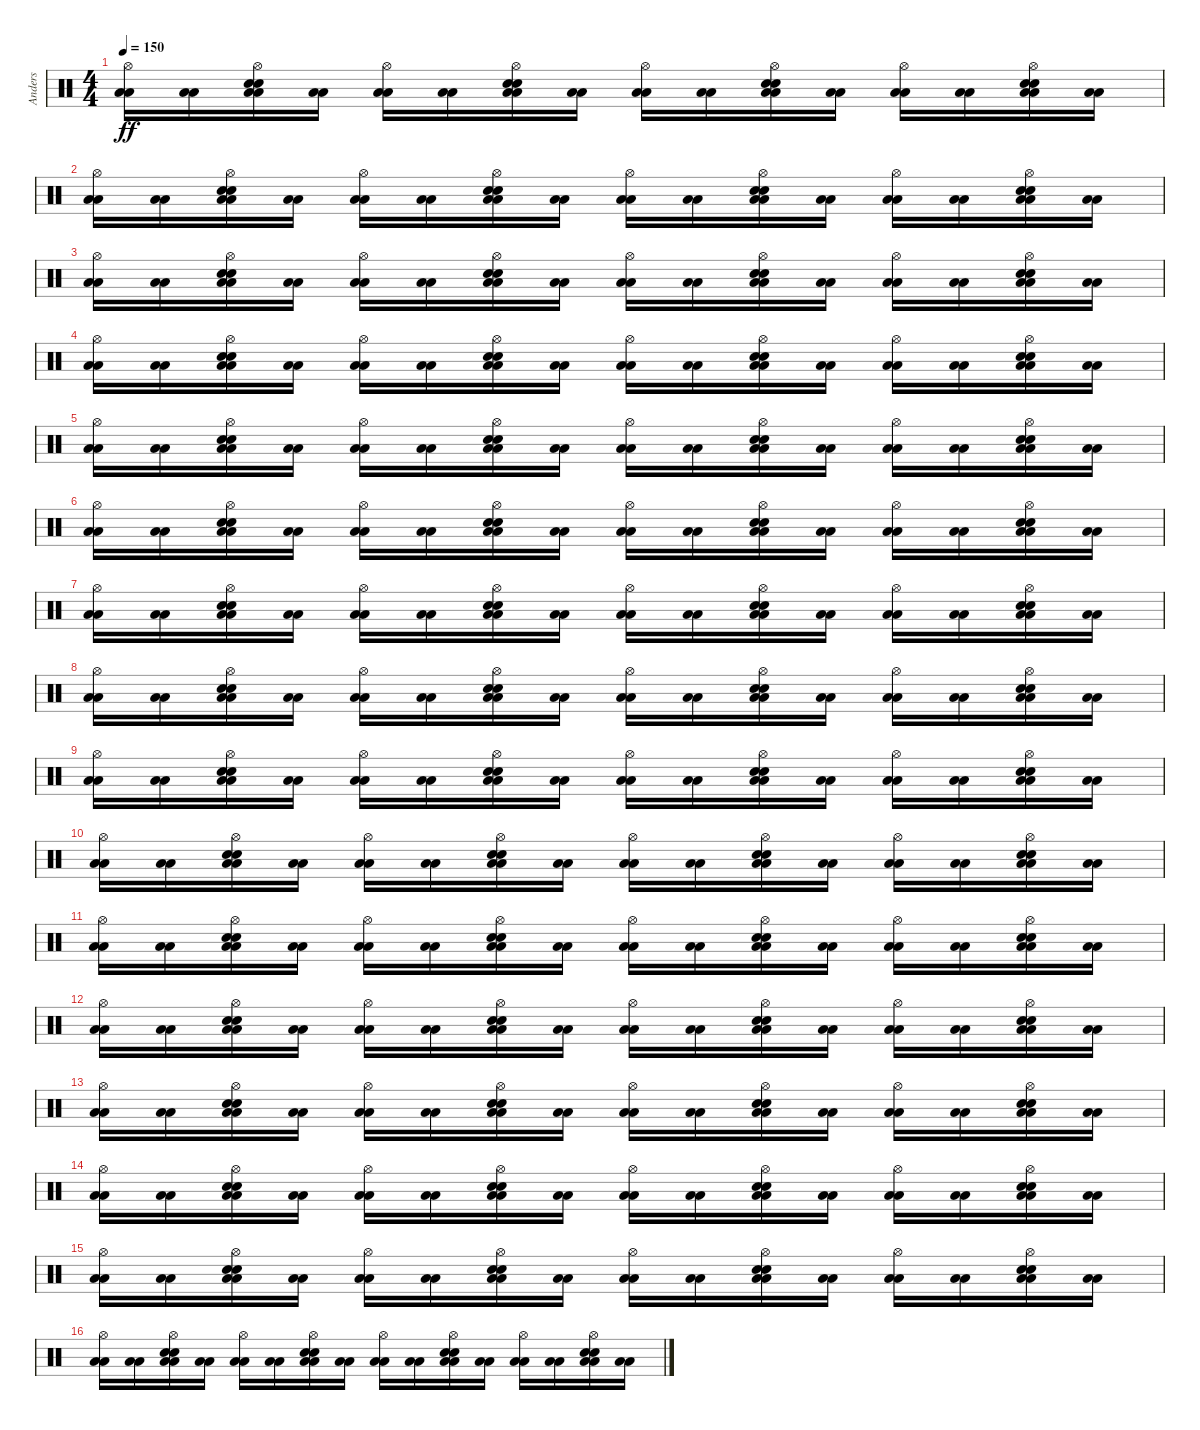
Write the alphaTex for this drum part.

\track ("Anders" "Anders") {instrument percussion}
\staff {score}
\articulation defaults
\ts (4 4)
\tempo 150
\clef neutral
\ks c
("Hi-Hat (open)" "Low Floor Tom (hit)" "Low Floor Tom (hit)").16{dy ff} ("Low Floor Tom (hit)" "Low Floor Tom (hit)").16 ("Hi-Hat (open)" "Electric Snare (hit)" "Electric Snare (hit)" "Low Floor Tom (hit)" "Low Floor Tom (hit)").16 ("Low Floor Tom (hit)" "Low Floor Tom (hit)").16 ("Hi-Hat (open)" "Low Floor Tom (hit)" "Low Floor Tom (hit)").16 ("Low Floor Tom (hit)" "Low Floor Tom (hit)").16 ("Hi-Hat (open)" "Electric Snare (hit)" "Electric Snare (hit)" "Low Floor Tom (hit)" "Low Floor Tom (hit)").16 ("Low Floor Tom (hit)" "Low Floor Tom (hit)").16 ("Hi-Hat (open)" "Low Floor Tom (hit)" "Low Floor Tom (hit)").16 ("Low Floor Tom (hit)" "Low Floor Tom (hit)").16 ("Hi-Hat (open)" "Electric Snare (hit)" "Electric Snare (hit)" "Low Floor Tom (hit)" "Low Floor Tom (hit)").16 ("Low Floor Tom (hit)" "Low Floor Tom (hit)").16 ("Hi-Hat (open)" "Low Floor Tom (hit)" "Low Floor Tom (hit)").16 ("Low Floor Tom (hit)" "Low Floor Tom (hit)").16 ("Hi-Hat (open)" "Electric Snare (hit)" "Electric Snare (hit)" "Low Floor Tom (hit)" "Low Floor Tom (hit)").16 ("Low Floor Tom (hit)" "Low Floor Tom (hit)").16 |
("Hi-Hat (open)" "Low Floor Tom (hit)" "Low Floor Tom (hit)").16 ("Low Floor Tom (hit)" "Low Floor Tom (hit)").16 ("Hi-Hat (open)" "Electric Snare (hit)" "Electric Snare (hit)" "Low Floor Tom (hit)" "Low Floor Tom (hit)").16 ("Low Floor Tom (hit)" "Low Floor Tom (hit)").16 ("Hi-Hat (open)" "Low Floor Tom (hit)" "Low Floor Tom (hit)").16 ("Low Floor Tom (hit)" "Low Floor Tom (hit)").16 ("Hi-Hat (open)" "Electric Snare (hit)" "Electric Snare (hit)" "Low Floor Tom (hit)" "Low Floor Tom (hit)").16 ("Low Floor Tom (hit)" "Low Floor Tom (hit)").16 ("Hi-Hat (open)" "Low Floor Tom (hit)" "Low Floor Tom (hit)").16 ("Low Floor Tom (hit)" "Low Floor Tom (hit)").16 ("Hi-Hat (open)" "Electric Snare (hit)" "Electric Snare (hit)" "Low Floor Tom (hit)" "Low Floor Tom (hit)").16 ("Low Floor Tom (hit)" "Low Floor Tom (hit)").16 ("Hi-Hat (open)" "Low Floor Tom (hit)" "Low Floor Tom (hit)").16 ("Low Floor Tom (hit)" "Low Floor Tom (hit)").16 ("Hi-Hat (open)" "Electric Snare (hit)" "Electric Snare (hit)" "Low Floor Tom (hit)" "Low Floor Tom (hit)").16 ("Low Floor Tom (hit)" "Low Floor Tom (hit)").16 |
("Hi-Hat (open)" "Low Floor Tom (hit)" "Low Floor Tom (hit)").16 ("Low Floor Tom (hit)" "Low Floor Tom (hit)").16 ("Hi-Hat (open)" "Electric Snare (hit)" "Electric Snare (hit)" "Low Floor Tom (hit)" "Low Floor Tom (hit)").16 ("Low Floor Tom (hit)" "Low Floor Tom (hit)").16 ("Hi-Hat (open)" "Low Floor Tom (hit)" "Low Floor Tom (hit)").16 ("Low Floor Tom (hit)" "Low Floor Tom (hit)").16 ("Hi-Hat (open)" "Electric Snare (hit)" "Electric Snare (hit)" "Low Floor Tom (hit)" "Low Floor Tom (hit)").16 ("Low Floor Tom (hit)" "Low Floor Tom (hit)").16 ("Hi-Hat (open)" "Low Floor Tom (hit)" "Low Floor Tom (hit)").16 ("Low Floor Tom (hit)" "Low Floor Tom (hit)").16 ("Hi-Hat (open)" "Electric Snare (hit)" "Electric Snare (hit)" "Low Floor Tom (hit)" "Low Floor Tom (hit)").16 ("Low Floor Tom (hit)" "Low Floor Tom (hit)").16 ("Hi-Hat (open)" "Low Floor Tom (hit)" "Low Floor Tom (hit)").16 ("Low Floor Tom (hit)" "Low Floor Tom (hit)").16 ("Hi-Hat (open)" "Electric Snare (hit)" "Electric Snare (hit)" "Low Floor Tom (hit)" "Low Floor Tom (hit)").16 ("Low Floor Tom (hit)" "Low Floor Tom (hit)").16 |
("Hi-Hat (open)" "Low Floor Tom (hit)" "Low Floor Tom (hit)").16 ("Low Floor Tom (hit)" "Low Floor Tom (hit)").16 ("Hi-Hat (open)" "Electric Snare (hit)" "Electric Snare (hit)" "Low Floor Tom (hit)" "Low Floor Tom (hit)").16 ("Low Floor Tom (hit)" "Low Floor Tom (hit)").16 ("Hi-Hat (open)" "Low Floor Tom (hit)" "Low Floor Tom (hit)").16 ("Low Floor Tom (hit)" "Low Floor Tom (hit)").16 ("Hi-Hat (open)" "Electric Snare (hit)" "Electric Snare (hit)" "Low Floor Tom (hit)" "Low Floor Tom (hit)").16 ("Low Floor Tom (hit)" "Low Floor Tom (hit)").16 ("Hi-Hat (open)" "Low Floor Tom (hit)" "Low Floor Tom (hit)").16 ("Low Floor Tom (hit)" "Low Floor Tom (hit)").16 ("Hi-Hat (open)" "Electric Snare (hit)" "Electric Snare (hit)" "Low Floor Tom (hit)" "Low Floor Tom (hit)").16 ("Low Floor Tom (hit)" "Low Floor Tom (hit)").16 ("Hi-Hat (open)" "Low Floor Tom (hit)" "Low Floor Tom (hit)").16 ("Low Floor Tom (hit)" "Low Floor Tom (hit)").16 ("Hi-Hat (open)" "Electric Snare (hit)" "Electric Snare (hit)" "Low Floor Tom (hit)" "Low Floor Tom (hit)").16 ("Low Floor Tom (hit)" "Low Floor Tom (hit)").16 |
("Hi-Hat (open)" "Low Floor Tom (hit)" "Low Floor Tom (hit)").16 ("Low Floor Tom (hit)" "Low Floor Tom (hit)").16 ("Hi-Hat (open)" "Electric Snare (hit)" "Electric Snare (hit)" "Low Floor Tom (hit)" "Low Floor Tom (hit)").16 ("Low Floor Tom (hit)" "Low Floor Tom (hit)").16 ("Hi-Hat (open)" "Low Floor Tom (hit)" "Low Floor Tom (hit)").16 ("Low Floor Tom (hit)" "Low Floor Tom (hit)").16 ("Hi-Hat (open)" "Electric Snare (hit)" "Electric Snare (hit)" "Low Floor Tom (hit)" "Low Floor Tom (hit)").16 ("Low Floor Tom (hit)" "Low Floor Tom (hit)").16 ("Hi-Hat (open)" "Low Floor Tom (hit)" "Low Floor Tom (hit)").16 ("Low Floor Tom (hit)" "Low Floor Tom (hit)").16 ("Hi-Hat (open)" "Electric Snare (hit)" "Electric Snare (hit)" "Low Floor Tom (hit)" "Low Floor Tom (hit)").16 ("Low Floor Tom (hit)" "Low Floor Tom (hit)").16 ("Hi-Hat (open)" "Low Floor Tom (hit)" "Low Floor Tom (hit)").16 ("Low Floor Tom (hit)" "Low Floor Tom (hit)").16 ("Hi-Hat (open)" "Electric Snare (hit)" "Electric Snare (hit)" "Low Floor Tom (hit)" "Low Floor Tom (hit)").16 ("Low Floor Tom (hit)" "Low Floor Tom (hit)").16 |
("Hi-Hat (open)" "Low Floor Tom (hit)" "Low Floor Tom (hit)").16 ("Low Floor Tom (hit)" "Low Floor Tom (hit)").16 ("Hi-Hat (open)" "Electric Snare (hit)" "Electric Snare (hit)" "Low Floor Tom (hit)" "Low Floor Tom (hit)").16 ("Low Floor Tom (hit)" "Low Floor Tom (hit)").16 ("Hi-Hat (open)" "Low Floor Tom (hit)" "Low Floor Tom (hit)").16 ("Low Floor Tom (hit)" "Low Floor Tom (hit)").16 ("Hi-Hat (open)" "Electric Snare (hit)" "Electric Snare (hit)" "Low Floor Tom (hit)" "Low Floor Tom (hit)").16 ("Low Floor Tom (hit)" "Low Floor Tom (hit)").16 ("Hi-Hat (open)" "Low Floor Tom (hit)" "Low Floor Tom (hit)").16 ("Low Floor Tom (hit)" "Low Floor Tom (hit)").16 ("Hi-Hat (open)" "Electric Snare (hit)" "Electric Snare (hit)" "Low Floor Tom (hit)" "Low Floor Tom (hit)").16 ("Low Floor Tom (hit)" "Low Floor Tom (hit)").16 ("Hi-Hat (open)" "Low Floor Tom (hit)" "Low Floor Tom (hit)").16 ("Low Floor Tom (hit)" "Low Floor Tom (hit)").16 ("Hi-Hat (open)" "Electric Snare (hit)" "Electric Snare (hit)" "Low Floor Tom (hit)" "Low Floor Tom (hit)").16 ("Low Floor Tom (hit)" "Low Floor Tom (hit)").16 |
("Hi-Hat (open)" "Low Floor Tom (hit)" "Low Floor Tom (hit)").16 ("Low Floor Tom (hit)" "Low Floor Tom (hit)").16 ("Hi-Hat (open)" "Electric Snare (hit)" "Electric Snare (hit)" "Low Floor Tom (hit)" "Low Floor Tom (hit)").16 ("Low Floor Tom (hit)" "Low Floor Tom (hit)").16 ("Hi-Hat (open)" "Low Floor Tom (hit)" "Low Floor Tom (hit)").16 ("Low Floor Tom (hit)" "Low Floor Tom (hit)").16 ("Hi-Hat (open)" "Electric Snare (hit)" "Electric Snare (hit)" "Low Floor Tom (hit)" "Low Floor Tom (hit)").16 ("Low Floor Tom (hit)" "Low Floor Tom (hit)").16 ("Hi-Hat (open)" "Low Floor Tom (hit)" "Low Floor Tom (hit)").16 ("Low Floor Tom (hit)" "Low Floor Tom (hit)").16 ("Hi-Hat (open)" "Electric Snare (hit)" "Electric Snare (hit)" "Low Floor Tom (hit)" "Low Floor Tom (hit)").16 ("Low Floor Tom (hit)" "Low Floor Tom (hit)").16 ("Hi-Hat (open)" "Low Floor Tom (hit)" "Low Floor Tom (hit)").16 ("Low Floor Tom (hit)" "Low Floor Tom (hit)").16 ("Hi-Hat (open)" "Electric Snare (hit)" "Electric Snare (hit)" "Low Floor Tom (hit)" "Low Floor Tom (hit)").16 ("Low Floor Tom (hit)" "Low Floor Tom (hit)").16 |
("Hi-Hat (open)" "Low Floor Tom (hit)" "Low Floor Tom (hit)").16 ("Low Floor Tom (hit)" "Low Floor Tom (hit)").16 ("Hi-Hat (open)" "Electric Snare (hit)" "Electric Snare (hit)" "Low Floor Tom (hit)" "Low Floor Tom (hit)").16 ("Low Floor Tom (hit)" "Low Floor Tom (hit)").16 ("Hi-Hat (open)" "Low Floor Tom (hit)" "Low Floor Tom (hit)").16 ("Low Floor Tom (hit)" "Low Floor Tom (hit)").16 ("Hi-Hat (open)" "Electric Snare (hit)" "Electric Snare (hit)" "Low Floor Tom (hit)" "Low Floor Tom (hit)").16 ("Low Floor Tom (hit)" "Low Floor Tom (hit)").16 ("Hi-Hat (open)" "Low Floor Tom (hit)" "Low Floor Tom (hit)").16 ("Low Floor Tom (hit)" "Low Floor Tom (hit)").16 ("Hi-Hat (open)" "Electric Snare (hit)" "Electric Snare (hit)" "Low Floor Tom (hit)" "Low Floor Tom (hit)").16 ("Low Floor Tom (hit)" "Low Floor Tom (hit)").16 ("Hi-Hat (open)" "Low Floor Tom (hit)" "Low Floor Tom (hit)").16 ("Low Floor Tom (hit)" "Low Floor Tom (hit)").16 ("Hi-Hat (open)" "Electric Snare (hit)" "Electric Snare (hit)" "Low Floor Tom (hit)" "Low Floor Tom (hit)").16 ("Low Floor Tom (hit)" "Low Floor Tom (hit)").16 |
("Hi-Hat (open)" "Low Floor Tom (hit)" "Low Floor Tom (hit)").16 ("Low Floor Tom (hit)" "Low Floor Tom (hit)").16 ("Hi-Hat (open)" "Electric Snare (hit)" "Electric Snare (hit)" "Low Floor Tom (hit)" "Low Floor Tom (hit)").16 ("Low Floor Tom (hit)" "Low Floor Tom (hit)").16 ("Hi-Hat (open)" "Low Floor Tom (hit)" "Low Floor Tom (hit)").16 ("Low Floor Tom (hit)" "Low Floor Tom (hit)").16 ("Hi-Hat (open)" "Electric Snare (hit)" "Electric Snare (hit)" "Low Floor Tom (hit)" "Low Floor Tom (hit)").16 ("Low Floor Tom (hit)" "Low Floor Tom (hit)").16 ("Hi-Hat (open)" "Low Floor Tom (hit)" "Low Floor Tom (hit)").16 ("Low Floor Tom (hit)" "Low Floor Tom (hit)").16 ("Hi-Hat (open)" "Electric Snare (hit)" "Electric Snare (hit)" "Low Floor Tom (hit)" "Low Floor Tom (hit)").16 ("Low Floor Tom (hit)" "Low Floor Tom (hit)").16 ("Hi-Hat (open)" "Low Floor Tom (hit)" "Low Floor Tom (hit)").16 ("Low Floor Tom (hit)" "Low Floor Tom (hit)").16 ("Hi-Hat (open)" "Electric Snare (hit)" "Electric Snare (hit)" "Low Floor Tom (hit)" "Low Floor Tom (hit)").16 ("Low Floor Tom (hit)" "Low Floor Tom (hit)").16 |
("Hi-Hat (open)" "Low Floor Tom (hit)" "Low Floor Tom (hit)").16 ("Low Floor Tom (hit)" "Low Floor Tom (hit)").16 ("Hi-Hat (open)" "Electric Snare (hit)" "Electric Snare (hit)" "Low Floor Tom (hit)" "Low Floor Tom (hit)").16 ("Low Floor Tom (hit)" "Low Floor Tom (hit)").16 ("Hi-Hat (open)" "Low Floor Tom (hit)" "Low Floor Tom (hit)").16 ("Low Floor Tom (hit)" "Low Floor Tom (hit)").16 ("Hi-Hat (open)" "Electric Snare (hit)" "Electric Snare (hit)" "Low Floor Tom (hit)" "Low Floor Tom (hit)").16 ("Low Floor Tom (hit)" "Low Floor Tom (hit)").16 ("Hi-Hat (open)" "Low Floor Tom (hit)" "Low Floor Tom (hit)").16 ("Low Floor Tom (hit)" "Low Floor Tom (hit)").16 ("Hi-Hat (open)" "Electric Snare (hit)" "Electric Snare (hit)" "Low Floor Tom (hit)" "Low Floor Tom (hit)").16 ("Low Floor Tom (hit)" "Low Floor Tom (hit)").16 ("Hi-Hat (open)" "Low Floor Tom (hit)" "Low Floor Tom (hit)").16 ("Low Floor Tom (hit)" "Low Floor Tom (hit)").16 ("Hi-Hat (open)" "Electric Snare (hit)" "Electric Snare (hit)" "Low Floor Tom (hit)" "Low Floor Tom (hit)").16 ("Low Floor Tom (hit)" "Low Floor Tom (hit)").16 |
("Hi-Hat (open)" "Low Floor Tom (hit)" "Low Floor Tom (hit)").16 ("Low Floor Tom (hit)" "Low Floor Tom (hit)").16 ("Hi-Hat (open)" "Electric Snare (hit)" "Electric Snare (hit)" "Low Floor Tom (hit)" "Low Floor Tom (hit)").16 ("Low Floor Tom (hit)" "Low Floor Tom (hit)").16 ("Hi-Hat (open)" "Low Floor Tom (hit)" "Low Floor Tom (hit)").16 ("Low Floor Tom (hit)" "Low Floor Tom (hit)").16 ("Hi-Hat (open)" "Electric Snare (hit)" "Electric Snare (hit)" "Low Floor Tom (hit)" "Low Floor Tom (hit)").16 ("Low Floor Tom (hit)" "Low Floor Tom (hit)").16 ("Hi-Hat (open)" "Low Floor Tom (hit)" "Low Floor Tom (hit)").16 ("Low Floor Tom (hit)" "Low Floor Tom (hit)").16 ("Hi-Hat (open)" "Electric Snare (hit)" "Electric Snare (hit)" "Low Floor Tom (hit)" "Low Floor Tom (hit)").16 ("Low Floor Tom (hit)" "Low Floor Tom (hit)").16 ("Hi-Hat (open)" "Low Floor Tom (hit)" "Low Floor Tom (hit)").16 ("Low Floor Tom (hit)" "Low Floor Tom (hit)").16 ("Hi-Hat (open)" "Electric Snare (hit)" "Electric Snare (hit)" "Low Floor Tom (hit)" "Low Floor Tom (hit)").16 ("Low Floor Tom (hit)" "Low Floor Tom (hit)").16 |
("Hi-Hat (open)" "Low Floor Tom (hit)" "Low Floor Tom (hit)").16 ("Low Floor Tom (hit)" "Low Floor Tom (hit)").16 ("Hi-Hat (open)" "Electric Snare (hit)" "Electric Snare (hit)" "Low Floor Tom (hit)" "Low Floor Tom (hit)").16 ("Low Floor Tom (hit)" "Low Floor Tom (hit)").16 ("Hi-Hat (open)" "Low Floor Tom (hit)" "Low Floor Tom (hit)").16 ("Low Floor Tom (hit)" "Low Floor Tom (hit)").16 ("Hi-Hat (open)" "Electric Snare (hit)" "Electric Snare (hit)" "Low Floor Tom (hit)" "Low Floor Tom (hit)").16 ("Low Floor Tom (hit)" "Low Floor Tom (hit)").16 ("Hi-Hat (open)" "Low Floor Tom (hit)" "Low Floor Tom (hit)").16 ("Low Floor Tom (hit)" "Low Floor Tom (hit)").16 ("Hi-Hat (open)" "Electric Snare (hit)" "Electric Snare (hit)" "Low Floor Tom (hit)" "Low Floor Tom (hit)").16 ("Low Floor Tom (hit)" "Low Floor Tom (hit)").16 ("Hi-Hat (open)" "Low Floor Tom (hit)" "Low Floor Tom (hit)").16 ("Low Floor Tom (hit)" "Low Floor Tom (hit)").16 ("Hi-Hat (open)" "Electric Snare (hit)" "Electric Snare (hit)" "Low Floor Tom (hit)" "Low Floor Tom (hit)").16 ("Low Floor Tom (hit)" "Low Floor Tom (hit)").16 |
("Hi-Hat (open)" "Low Floor Tom (hit)" "Low Floor Tom (hit)").16 ("Low Floor Tom (hit)" "Low Floor Tom (hit)").16 ("Hi-Hat (open)" "Electric Snare (hit)" "Electric Snare (hit)" "Low Floor Tom (hit)" "Low Floor Tom (hit)").16 ("Low Floor Tom (hit)" "Low Floor Tom (hit)").16 ("Hi-Hat (open)" "Low Floor Tom (hit)" "Low Floor Tom (hit)").16 ("Low Floor Tom (hit)" "Low Floor Tom (hit)").16 ("Hi-Hat (open)" "Electric Snare (hit)" "Electric Snare (hit)" "Low Floor Tom (hit)" "Low Floor Tom (hit)").16 ("Low Floor Tom (hit)" "Low Floor Tom (hit)").16 ("Hi-Hat (open)" "Low Floor Tom (hit)" "Low Floor Tom (hit)").16 ("Low Floor Tom (hit)" "Low Floor Tom (hit)").16 ("Hi-Hat (open)" "Electric Snare (hit)" "Electric Snare (hit)" "Low Floor Tom (hit)" "Low Floor Tom (hit)").16 ("Low Floor Tom (hit)" "Low Floor Tom (hit)").16 ("Hi-Hat (open)" "Low Floor Tom (hit)" "Low Floor Tom (hit)").16 ("Low Floor Tom (hit)" "Low Floor Tom (hit)").16 ("Hi-Hat (open)" "Electric Snare (hit)" "Electric Snare (hit)" "Low Floor Tom (hit)" "Low Floor Tom (hit)").16 ("Low Floor Tom (hit)" "Low Floor Tom (hit)").16 |
("Hi-Hat (open)" "Low Floor Tom (hit)" "Low Floor Tom (hit)").16 ("Low Floor Tom (hit)" "Low Floor Tom (hit)").16 ("Hi-Hat (open)" "Electric Snare (hit)" "Electric Snare (hit)" "Low Floor Tom (hit)" "Low Floor Tom (hit)").16 ("Low Floor Tom (hit)" "Low Floor Tom (hit)").16 ("Hi-Hat (open)" "Low Floor Tom (hit)" "Low Floor Tom (hit)").16 ("Low Floor Tom (hit)" "Low Floor Tom (hit)").16 ("Hi-Hat (open)" "Electric Snare (hit)" "Electric Snare (hit)" "Low Floor Tom (hit)" "Low Floor Tom (hit)").16 ("Low Floor Tom (hit)" "Low Floor Tom (hit)").16 ("Hi-Hat (open)" "Low Floor Tom (hit)" "Low Floor Tom (hit)").16 ("Low Floor Tom (hit)" "Low Floor Tom (hit)").16 ("Hi-Hat (open)" "Electric Snare (hit)" "Electric Snare (hit)" "Low Floor Tom (hit)" "Low Floor Tom (hit)").16 ("Low Floor Tom (hit)" "Low Floor Tom (hit)").16 ("Hi-Hat (open)" "Low Floor Tom (hit)" "Low Floor Tom (hit)").16 ("Low Floor Tom (hit)" "Low Floor Tom (hit)").16 ("Hi-Hat (open)" "Electric Snare (hit)" "Electric Snare (hit)" "Low Floor Tom (hit)" "Low Floor Tom (hit)").16 ("Low Floor Tom (hit)" "Low Floor Tom (hit)").16 |
("Hi-Hat (open)" "Low Floor Tom (hit)" "Low Floor Tom (hit)").16 ("Low Floor Tom (hit)" "Low Floor Tom (hit)").16 ("Hi-Hat (open)" "Electric Snare (hit)" "Electric Snare (hit)" "Low Floor Tom (hit)" "Low Floor Tom (hit)").16 ("Low Floor Tom (hit)" "Low Floor Tom (hit)").16 ("Hi-Hat (open)" "Low Floor Tom (hit)" "Low Floor Tom (hit)").16 ("Low Floor Tom (hit)" "Low Floor Tom (hit)").16 ("Hi-Hat (open)" "Electric Snare (hit)" "Electric Snare (hit)" "Low Floor Tom (hit)" "Low Floor Tom (hit)").16 ("Low Floor Tom (hit)" "Low Floor Tom (hit)").16 ("Hi-Hat (open)" "Low Floor Tom (hit)" "Low Floor Tom (hit)").16 ("Low Floor Tom (hit)" "Low Floor Tom (hit)").16 ("Hi-Hat (open)" "Electric Snare (hit)" "Electric Snare (hit)" "Low Floor Tom (hit)" "Low Floor Tom (hit)").16 ("Low Floor Tom (hit)" "Low Floor Tom (hit)").16 ("Hi-Hat (open)" "Low Floor Tom (hit)" "Low Floor Tom (hit)").16 ("Low Floor Tom (hit)" "Low Floor Tom (hit)").16 ("Hi-Hat (open)" "Electric Snare (hit)" "Electric Snare (hit)" "Low Floor Tom (hit)" "Low Floor Tom (hit)").16 ("Low Floor Tom (hit)" "Low Floor Tom (hit)").16 |
("Hi-Hat (open)" "Low Floor Tom (hit)" "Low Floor Tom (hit)").16 ("Low Floor Tom (hit)" "Low Floor Tom (hit)").16 ("Hi-Hat (open)" "Electric Snare (hit)" "Electric Snare (hit)" "Low Floor Tom (hit)" "Low Floor Tom (hit)").16 ("Low Floor Tom (hit)" "Low Floor Tom (hit)").16 ("Hi-Hat (open)" "Low Floor Tom (hit)" "Low Floor Tom (hit)").16 ("Low Floor Tom (hit)" "Low Floor Tom (hit)").16 ("Hi-Hat (open)" "Electric Snare (hit)" "Electric Snare (hit)" "Low Floor Tom (hit)" "Low Floor Tom (hit)").16 ("Low Floor Tom (hit)" "Low Floor Tom (hit)").16 ("Hi-Hat (open)" "Low Floor Tom (hit)" "Low Floor Tom (hit)").16 ("Low Floor Tom (hit)" "Low Floor Tom (hit)").16 ("Hi-Hat (open)" "Electric Snare (hit)" "Electric Snare (hit)" "Low Floor Tom (hit)" "Low Floor Tom (hit)").16 ("Low Floor Tom (hit)" "Low Floor Tom (hit)").16 ("Hi-Hat (open)" "Low Floor Tom (hit)" "Low Floor Tom (hit)").16 ("Low Floor Tom (hit)" "Low Floor Tom (hit)").16 ("Hi-Hat (open)" "Electric Snare (hit)" "Electric Snare (hit)" "Low Floor Tom (hit)" "Low Floor Tom (hit)").16 ("Low Floor Tom (hit)" "Low Floor Tom (hit)").16
